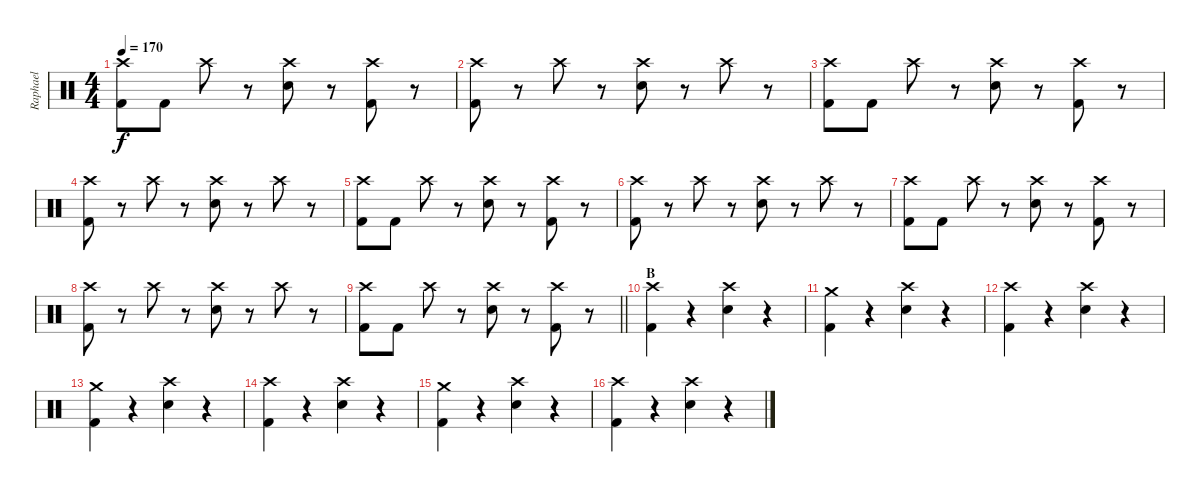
\track ("Raphael" "Raphael") {instrument percussion}
\staff {score}
\articulation defaults
\ts (4 4)
\tempo 170
\clef neutral
\ks c
("Kick (hit) 2" "Crash high (hit)").8{dy f} "Kick (hit) 2".8 "Crash high (hit)".8 r.8 ("Snare (hit) 2" "Crash high (hit)").8 r.8 ("Kick (hit) 2" "Crash high (hit)").8 r.8 |
("Kick (hit) 2" "Crash high (hit)").8 r.8 "Crash high (hit)".8 r.8 ("Snare (hit) 2" "Crash high (hit)").8 r.8 "Crash high (hit)".8 r.8 |
("Kick (hit) 2" "Crash high (hit)").8 "Kick (hit) 2".8 "Crash high (hit)".8 r.8 ("Snare (hit) 2" "Crash high (hit)").8 r.8 ("Kick (hit) 2" "Crash high (hit)").8 r.8 |
("Kick (hit) 2" "Crash high (hit)").8 r.8 "Crash high (hit)".8 r.8 ("Snare (hit) 2" "Crash high (hit)").8 r.8 "Crash high (hit)".8 r.8 |
("Kick (hit) 2" "Crash high (hit)").8 "Kick (hit) 2".8 "Crash high (hit)".8 r.8 ("Snare (hit) 2" "Crash high (hit)").8 r.8 ("Kick (hit) 2" "Crash high (hit)").8 r.8 |
("Kick (hit) 2" "Crash high (hit)").8 r.8 "Crash high (hit)".8 r.8 ("Snare (hit) 2" "Crash high (hit)").8 r.8 "Crash high (hit)".8 r.8 |
("Kick (hit) 2" "Crash high (hit)").8 "Kick (hit) 2".8 "Crash high (hit)".8 r.8 ("Snare (hit) 2" "Crash high (hit)").8 r.8 ("Kick (hit) 2" "Crash high (hit)").8 r.8 |
("Kick (hit) 2" "Crash high (hit)").8 r.8 "Crash high (hit)".8 r.8 ("Snare (hit) 2" "Crash high (hit)").8 r.8 "Crash high (hit)".8 r.8 |
\barLineRight lightlight
("Kick (hit) 2" "Crash high (hit)").8 "Kick (hit) 2".8 "Crash high (hit)".8 r.8 ("Snare (hit) 2" "Crash high (hit)").8 r.8 ("Kick (hit) 2" "Crash high (hit)").8 r.8 |
\section ("" "B")
("Kick (hit) 2" "Crash high (hit)").4 r.4 ("Snare (hit) 2" "Crash high (hit)").4 r.4 |
("Kick (hit) 2" "Crash medium (hit)").4 r.4 ("Snare (hit) 2" "Crash high (hit)").4 r.4 |
("Kick (hit) 2" "Crash high (hit)").4 r.4 ("Snare (hit) 2" "Crash high (hit)").4 r.4 |
("Kick (hit) 2" "Crash medium (hit)").4 r.4 ("Snare (hit) 2" "Crash high (hit)").4 r.4 |
("Kick (hit) 2" "Crash high (hit)").4 r.4 ("Snare (hit) 2" "Crash high (hit)").4 r.4 |
("Kick (hit) 2" "Crash medium (hit)").4 r.4 ("Snare (hit) 2" "Crash high (hit)").4 r.4 |
("Kick (hit) 2" "Crash high (hit)").4 r.4 ("Snare (hit) 2" "Crash high (hit)").4 r.4
